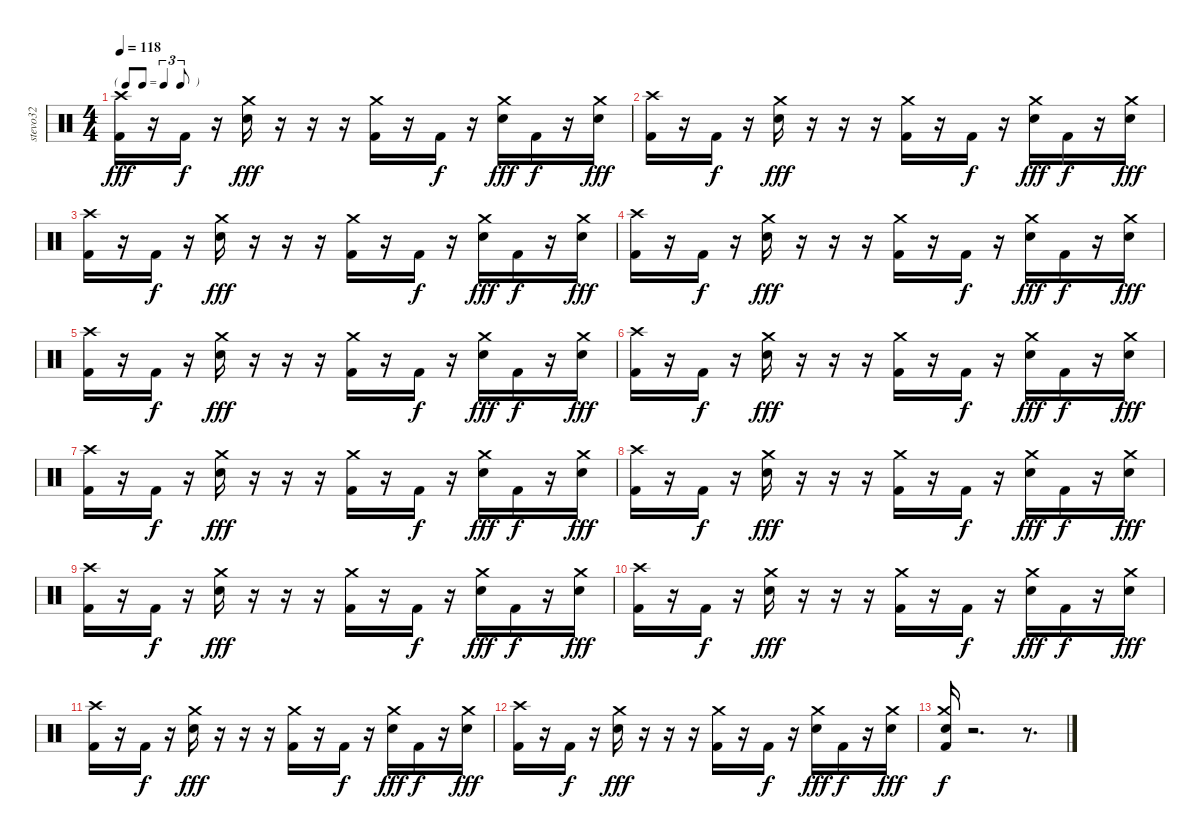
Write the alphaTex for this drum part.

\track ("stevo32" "stevo32") {instrument percussion}
\staff {score}
\articulation defaults
\ts (4 4)
\tf triplet8th
\tempo 118
\clef neutral
\ks c
("Crash high (hit)" "Kick (hit) 2").16{dy fff} r.16 "Kick (hit) 2".16{dy f} r.16 ("Crash medium (hit)" "Electric Snare (hit)").16{dy fff} r.16 r.16 r.16 ("Crash medium (hit)" "Kick (hit) 2").16 r.16 "Kick (hit) 2".16{dy f} r.16 ("Crash medium (hit)" "Electric Snare (hit)").16{dy fff} "Kick (hit) 2".16{dy f} r.16 ("Crash medium (hit)" "Electric Snare (hit)").16{dy fff} |
("Crash high (hit)" "Kick (hit) 2").16 r.16 "Kick (hit) 2".16{dy f} r.16 ("Crash medium (hit)" "Electric Snare (hit)").16{dy fff} r.16 r.16 r.16 ("Crash medium (hit)" "Kick (hit) 2").16 r.16 "Kick (hit) 2".16{dy f} r.16 ("Crash medium (hit)" "Electric Snare (hit)").16{dy fff} "Kick (hit) 2".16{dy f} r.16 ("Crash medium (hit)" "Electric Snare (hit)").16{dy fff} |
("Crash high (hit)" "Kick (hit) 2").16 r.16 "Kick (hit) 2".16{dy f} r.16 ("Crash medium (hit)" "Electric Snare (hit)").16{dy fff} r.16 r.16 r.16 ("Crash medium (hit)" "Kick (hit) 2").16 r.16 "Kick (hit) 2".16{dy f} r.16 ("Crash medium (hit)" "Electric Snare (hit)").16{dy fff} "Kick (hit) 2".16{dy f} r.16 ("Crash medium (hit)" "Electric Snare (hit)").16{dy fff} |
("Crash high (hit)" "Kick (hit) 2").16 r.16 "Kick (hit) 2".16{dy f} r.16 ("Crash medium (hit)" "Electric Snare (hit)").16{dy fff} r.16 r.16 r.16 ("Crash medium (hit)" "Kick (hit) 2").16 r.16 "Kick (hit) 2".16{dy f} r.16 ("Crash medium (hit)" "Electric Snare (hit)").16{dy fff} "Kick (hit) 2".16{dy f} r.16 ("Crash medium (hit)" "Electric Snare (hit)").16{dy fff} |
("Crash high (hit)" "Kick (hit) 2").16 r.16 "Kick (hit) 2".16{dy f} r.16 ("Crash medium (hit)" "Electric Snare (hit)").16{dy fff} r.16 r.16 r.16 ("Crash medium (hit)" "Kick (hit) 2").16 r.16 "Kick (hit) 2".16{dy f} r.16 ("Crash medium (hit)" "Electric Snare (hit)").16{dy fff} "Kick (hit) 2".16{dy f} r.16 ("Crash medium (hit)" "Electric Snare (hit)").16{dy fff} |
("Crash high (hit)" "Kick (hit) 2").16 r.16 "Kick (hit) 2".16{dy f} r.16 ("Crash medium (hit)" "Electric Snare (hit)").16{dy fff} r.16 r.16 r.16 ("Crash medium (hit)" "Kick (hit) 2").16 r.16 "Kick (hit) 2".16{dy f} r.16 ("Crash medium (hit)" "Electric Snare (hit)").16{dy fff} "Kick (hit) 2".16{dy f} r.16 ("Crash medium (hit)" "Electric Snare (hit)").16{dy fff} |
("Crash high (hit)" "Kick (hit) 2").16 r.16 "Kick (hit) 2".16{dy f} r.16 ("Crash medium (hit)" "Electric Snare (hit)").16{dy fff} r.16 r.16 r.16 ("Crash medium (hit)" "Kick (hit) 2").16 r.16 "Kick (hit) 2".16{dy f} r.16 ("Crash medium (hit)" "Electric Snare (hit)").16{dy fff} "Kick (hit) 2".16{dy f} r.16 ("Crash medium (hit)" "Electric Snare (hit)").16{dy fff} |
("Crash high (hit)" "Kick (hit) 2").16 r.16 "Kick (hit) 2".16{dy f} r.16 ("Crash medium (hit)" "Electric Snare (hit)").16{dy fff} r.16 r.16 r.16 ("Crash medium (hit)" "Kick (hit) 2").16 r.16 "Kick (hit) 2".16{dy f} r.16 ("Crash medium (hit)" "Electric Snare (hit)").16{dy fff} "Kick (hit) 2".16{dy f} r.16 ("Crash medium (hit)" "Electric Snare (hit)").16{dy fff} |
("Crash high (hit)" "Kick (hit) 2").16 r.16 "Kick (hit) 2".16{dy f} r.16 ("Crash medium (hit)" "Electric Snare (hit)").16{dy fff} r.16 r.16 r.16 ("Crash medium (hit)" "Kick (hit) 2").16 r.16 "Kick (hit) 2".16{dy f} r.16 ("Crash medium (hit)" "Electric Snare (hit)").16{dy fff} "Kick (hit) 2".16{dy f} r.16 ("Crash medium (hit)" "Electric Snare (hit)").16{dy fff} |
("Crash high (hit)" "Kick (hit) 2").16 r.16 "Kick (hit) 2".16{dy f} r.16 ("Crash medium (hit)" "Electric Snare (hit)").16{dy fff} r.16 r.16 r.16 ("Crash medium (hit)" "Kick (hit) 2").16 r.16 "Kick (hit) 2".16{dy f} r.16 ("Crash medium (hit)" "Electric Snare (hit)").16{dy fff} "Kick (hit) 2".16{dy f} r.16 ("Crash medium (hit)" "Electric Snare (hit)").16{dy fff} |
("Crash high (hit)" "Kick (hit) 2").16 r.16 "Kick (hit) 2".16{dy f} r.16 ("Crash medium (hit)" "Electric Snare (hit)").16{dy fff} r.16 r.16 r.16 ("Crash medium (hit)" "Kick (hit) 2").16 r.16 "Kick (hit) 2".16{dy f} r.16 ("Crash medium (hit)" "Electric Snare (hit)").16{dy fff} "Kick (hit) 2".16{dy f} r.16 ("Crash medium (hit)" "Electric Snare (hit)").16{dy fff} |
("Crash high (hit)" "Kick (hit) 2").16 r.16 "Kick (hit) 2".16{dy f} r.16 ("Crash medium (hit)" "Electric Snare (hit)").16{dy fff} r.16 r.16 r.16 ("Crash medium (hit)" "Kick (hit) 2").16 r.16 "Kick (hit) 2".16{dy f} r.16 ("Crash medium (hit)" "Electric Snare (hit)").16{dy fff} "Kick (hit) 2".16{dy f} r.16 ("Crash medium (hit)" "Electric Snare (hit)").16{dy fff} |
("Kick (hit) 2" "Crash medium (hit)" "Electric Snare (hit)").16{dy f} r.2{d} r.8{d}
